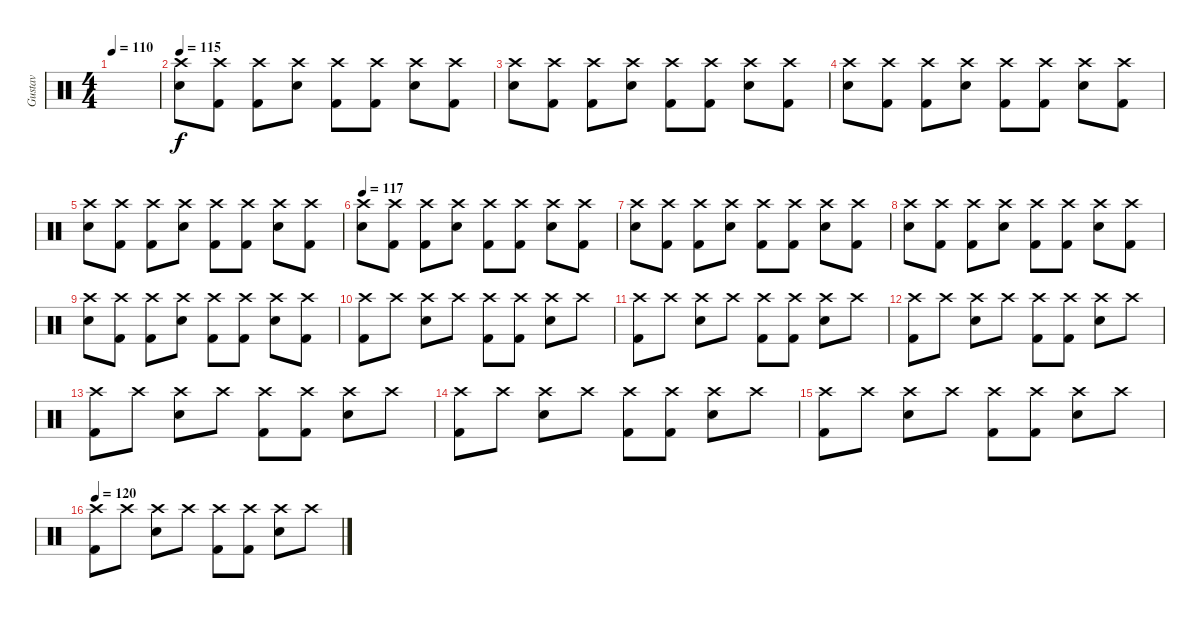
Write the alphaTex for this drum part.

\track ("Gustav" "Gustav") {instrument percussion}
\staff {score}
\articulation defaults
\ts (4 4)
\tempo 110
\clef neutral
\ks c
|
\tempo 115
("Snare (hit) 2" "Crash high (hit)").8 ("Kick (hit) 2" "Crash high (hit)").8 ("Crash high (hit)" "Kick (hit) 2").8 ("Snare (hit) 2" "Crash high (hit)").8 ("Kick (hit) 2" "Crash high (hit)").8 ("Kick (hit) 2" "Crash high (hit)").8 ("Snare (hit) 2" "Crash high (hit)").8 ("Crash high (hit)" "Kick (hit) 2").8 |
("Snare (hit) 2" "Crash high (hit)").8 ("Kick (hit) 2" "Crash high (hit)").8 ("Crash high (hit)" "Kick (hit) 2").8 ("Snare (hit) 2" "Crash high (hit)").8 ("Kick (hit) 2" "Crash high (hit)").8 ("Kick (hit) 2" "Crash high (hit)").8 ("Snare (hit) 2" "Crash high (hit)").8 ("Crash high (hit)" "Kick (hit) 2").8 |
("Snare (hit) 2" "Crash high (hit)").8 ("Kick (hit) 2" "Crash high (hit)").8 ("Crash high (hit)" "Kick (hit) 2").8 ("Snare (hit) 2" "Crash high (hit)").8 ("Kick (hit) 2" "Crash high (hit)").8 ("Kick (hit) 2" "Crash high (hit)").8 ("Snare (hit) 2" "Crash high (hit)").8 ("Crash high (hit)" "Kick (hit) 2").8 |
("Snare (hit) 2" "Crash high (hit)").8 ("Kick (hit) 2" "Crash high (hit)").8 ("Crash high (hit)" "Kick (hit) 2").8 ("Snare (hit) 2" "Crash high (hit)").8 ("Kick (hit) 2" "Crash high (hit)").8 ("Kick (hit) 2" "Crash high (hit)").8 ("Snare (hit) 2" "Crash high (hit)").8 ("Crash high (hit)" "Kick (hit) 2").8 |
\tempo 117
("Snare (hit) 2" "Crash high (hit)").8 ("Kick (hit) 2" "Crash high (hit)").8 ("Crash high (hit)" "Kick (hit) 2").8 ("Snare (hit) 2" "Crash high (hit)").8 ("Kick (hit) 2" "Crash high (hit)").8 ("Kick (hit) 2" "Crash high (hit)").8 ("Snare (hit) 2" "Crash high (hit)").8 ("Crash high (hit)" "Kick (hit) 2").8 |
("Snare (hit) 2" "Crash high (hit)").8 ("Kick (hit) 2" "Crash high (hit)").8 ("Crash high (hit)" "Kick (hit) 2").8 ("Snare (hit) 2" "Crash high (hit)").8 ("Kick (hit) 2" "Crash high (hit)").8 ("Kick (hit) 2" "Crash high (hit)").8 ("Snare (hit) 2" "Crash high (hit)").8 ("Crash high (hit)" "Kick (hit) 2").8 |
("Snare (hit) 2" "Crash high (hit)").8 ("Kick (hit) 2" "Crash high (hit)").8 ("Crash high (hit)" "Kick (hit) 2").8 ("Snare (hit) 2" "Crash high (hit)").8 ("Kick (hit) 2" "Crash high (hit)").8 ("Kick (hit) 2" "Crash high (hit)").8 ("Snare (hit) 2" "Crash high (hit)").8 ("Crash high (hit)" "Kick (hit) 2").8 |
("Snare (hit) 2" "Crash high (hit)").8 ("Kick (hit) 2" "Crash high (hit)").8 ("Crash high (hit)" "Kick (hit) 2").8 ("Snare (hit) 2" "Crash high (hit)").8 ("Kick (hit) 2" "Crash high (hit)").8 ("Kick (hit) 2" "Crash high (hit)").8 ("Snare (hit) 2" "Crash high (hit)").8 ("Crash high (hit)" "Kick (hit) 2").8 |
("Crash high (hit)" "Kick (hit) 2").8 "Crash high (hit)".8 ("Snare (hit) 2" "Crash high (hit)").8 "Crash high (hit)".8 ("Kick (hit) 2" "Crash high (hit)").8 ("Crash high (hit)" "Kick (hit) 2").8 ("Snare (hit) 2" "Crash high (hit)").8 "Crash high (hit)".8 |
("Crash high (hit)" "Kick (hit) 2").8 "Crash high (hit)".8 ("Snare (hit) 2" "Crash high (hit)").8 "Crash high (hit)".8 ("Kick (hit) 2" "Crash high (hit)").8 ("Crash high (hit)" "Kick (hit) 2").8 ("Snare (hit) 2" "Crash high (hit)").8 "Crash high (hit)".8 |
("Crash high (hit)" "Kick (hit) 2").8 "Crash high (hit)".8 ("Snare (hit) 2" "Crash high (hit)").8 "Crash high (hit)".8 ("Kick (hit) 2" "Crash high (hit)").8 ("Crash high (hit)" "Kick (hit) 2").8 ("Snare (hit) 2" "Crash high (hit)").8 "Crash high (hit)".8 |
("Crash high (hit)" "Kick (hit) 2").8 "Crash high (hit)".8 ("Snare (hit) 2" "Crash high (hit)").8 "Crash high (hit)".8 ("Kick (hit) 2" "Crash high (hit)").8 ("Crash high (hit)" "Kick (hit) 2").8 ("Snare (hit) 2" "Crash high (hit)").8 "Crash high (hit)".8 |
("Crash high (hit)" "Kick (hit) 2").8 "Crash high (hit)".8 ("Snare (hit) 2" "Crash high (hit)").8 "Crash high (hit)".8 ("Kick (hit) 2" "Crash high (hit)").8 ("Crash high (hit)" "Kick (hit) 2").8 ("Snare (hit) 2" "Crash high (hit)").8 "Crash high (hit)".8 |
("Crash high (hit)" "Kick (hit) 2").8 "Crash high (hit)".8 ("Snare (hit) 2" "Crash high (hit)").8 "Crash high (hit)".8 ("Kick (hit) 2" "Crash high (hit)").8 ("Crash high (hit)" "Kick (hit) 2").8 ("Snare (hit) 2" "Crash high (hit)").8 "Crash high (hit)".8 |
\tempo 120
("Crash high (hit)" "Kick (hit) 2").8 "Crash high (hit)".8 ("Snare (hit) 2" "Crash high (hit)").8 "Crash high (hit)".8 ("Kick (hit) 2" "Crash high (hit)").8 ("Crash high (hit)" "Kick (hit) 2").8 ("Snare (hit) 2" "Crash high (hit)").8 "Crash high (hit)".8
